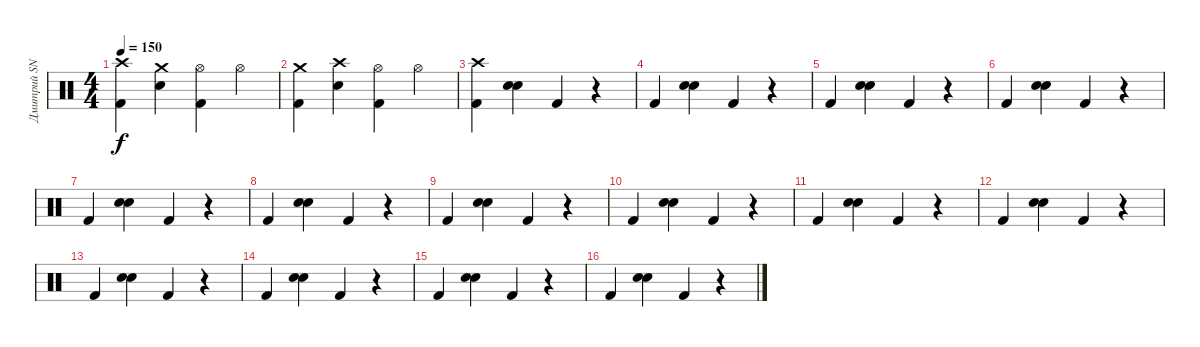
\track ("Дмитрий SNAKE Хакимов" "Дмитрий SN") {instrument percussion}
\staff {score}
\articulation defaults
\ts (4 4)
\tempo 150
\clef neutral
\ks c
("Crash high (hit)" "Kick (hit) 2").4{dy f} ("Crash medium (hit)" "Snare (hit) 2").4 ("Hi-Hat (open)" "Kick (hit) 2").4 "Hi-Hat (open)".4 |
("Crash medium (hit)" "Kick (hit) 2").4 ("Crash high (hit)" "Snare (hit) 2").4 ("Hi-Hat (open)" "Kick (hit) 2").4 "Hi-Hat (open)".4 |
("Crash high (hit)" "Kick (hit) 2").4 ("Snare (hit) 2" "Hand Clap (hit)").4 "Kick (hit) 2".4 r.4 |
"Kick (hit) 2".4 ("Snare (hit) 2" "Hand Clap (hit)").4 "Kick (hit) 2".4 r.4 |
"Kick (hit) 2".4 ("Snare (hit) 2" "Hand Clap (hit)").4 "Kick (hit) 2".4 r.4 |
"Kick (hit) 2".4 ("Snare (hit) 2" "Hand Clap (hit)").4 "Kick (hit) 2".4 r.4 |
"Kick (hit) 2".4 ("Snare (hit) 2" "Hand Clap (hit)").4 "Kick (hit) 2".4 r.4 |
"Kick (hit) 2".4 ("Snare (hit) 2" "Hand Clap (hit)").4 "Kick (hit) 2".4 r.4 |
"Kick (hit) 2".4 ("Snare (hit) 2" "Hand Clap (hit)").4 "Kick (hit) 2".4 r.4 |
"Kick (hit) 2".4 ("Snare (hit) 2" "Hand Clap (hit)").4 "Kick (hit) 2".4 r.4 |
"Kick (hit) 2".4 ("Snare (hit) 2" "Hand Clap (hit)").4 "Kick (hit) 2".4 r.4 |
"Kick (hit) 2".4 ("Snare (hit) 2" "Hand Clap (hit)").4 "Kick (hit) 2".4 r.4 |
"Kick (hit) 2".4 ("Snare (hit) 2" "Hand Clap (hit)").4 "Kick (hit) 2".4 r.4 |
"Kick (hit) 2".4 ("Snare (hit) 2" "Hand Clap (hit)").4 "Kick (hit) 2".4 r.4 |
"Kick (hit) 2".4 ("Snare (hit) 2" "Hand Clap (hit)").4 "Kick (hit) 2".4 r.4 |
"Kick (hit) 2".4 ("Snare (hit) 2" "Hand Clap (hit)").4 "Kick (hit) 2".4 r.4
